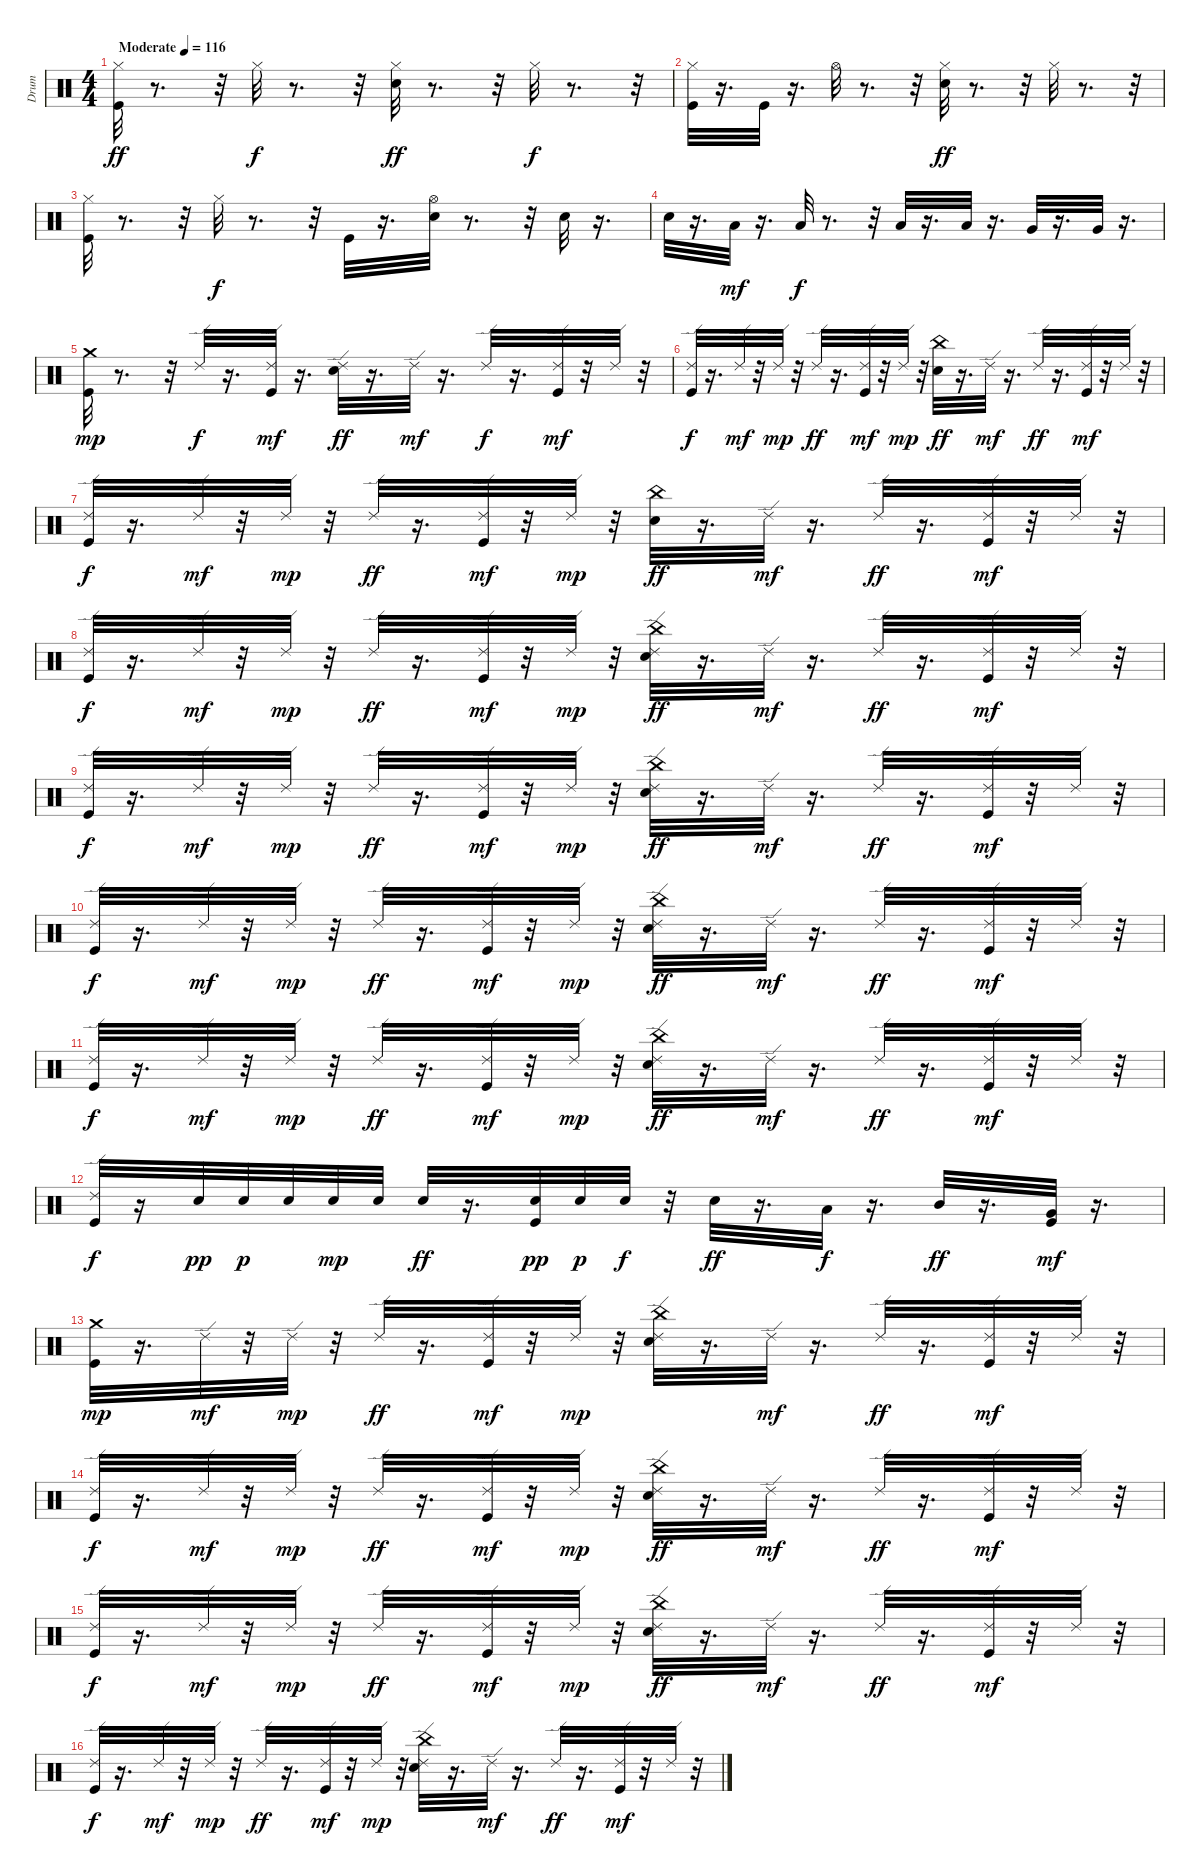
\track ("Drum    " "Drum    ") {instrument percussion}
\staff {score}
\articulation defaults
\ts (4 4)
\tempo (116 "Moderate")
\clef neutral
\ks c
("Kick (hit)" "Hi-Hat (closed)").32{dy ff} r.8{d} r.32 "Hi-Hat (closed)".32{dy f} r.8{d} r.32 ("Electric Snare (hit)" "Hi-Hat (closed)").32{dy ff} r.8{d} r.32 "Hi-Hat (closed)".32{dy f} r.8{d} r.32 |
("Kick (hit)" "Hi-Hat (closed)").32 r.16{d} "Kick (hit)".32 r.16{d} "Hi-Hat (open)".32 r.8{d} r.32 ("Hi-Hat (closed)" "Electric Snare (hit)").32{dy ff} r.8{d} r.32 "Hi-Hat (closed)".32 r.8{d} r.32 |
("Hi-Hat (closed)" "Kick (hit)").32 r.8{d} r.32 "Hi-Hat (closed)".32{dy f} r.8{d} r.32 "Kick (hit)".32 r.16{d} ("Hi-Hat (open)" "Electric Snare (hit)").32 r.8{d} r.32 "Electric Snare (hit)".32 r.16{d} |
"Electric Snare (hit)".32 r.16{d} "Low Tom (hit)".32{dy mf} r.16{d} "Low Tom (hit)".32{dy f} r.8{d} r.32 "Low Tom (hit)".32 r.16{d} "Low Tom (hit)".32 r.16{d} "Very Low Tom (hit)".32 r.16{d} "Very Low Tom (hit)".32 r.16{d} |
("Kick (hit)" "Crash medium (hit)").32{dy mp} r.8{d} r.32 "Ride (edge) 2".32{dy f} r.16{d} ("Ride (edge) 2" "Kick (hit)").32{dy mf} r.16{d} ("Electric Snare (hit)" "Ride (edge) 2").32{dy ff} r.16{d} "Ride (edge) 2".32{dy mf} r.16{d} "Ride (edge) 2".32{dy f} r.16{d} ("Ride (edge) 2" "Kick (hit)").32{dy mf} r.32 "Ride (edge) 2".32 r.32 |
("Ride (edge) 2" "Kick (hit)").32{dy f} r.16{d} "Ride (edge) 2".32{dy mf} r.32 "Ride (edge) 2".32{dy mp} r.32 "Ride (edge) 2".32{dy ff} r.16{d} ("Kick (hit)" "Ride (edge) 2").32{dy mf} r.32 "Ride (edge) 2".32{dy mp} r.32 ("China (hit)" "Electric Snare (hit)").32{dy ff} r.16{d} "Ride (edge) 2".32{dy mf} r.16{d} "Ride (edge) 2".32{dy ff} r.16{d} ("Kick (hit)" "Ride (edge) 2").32{dy mf} r.32 "Ride (edge) 2".32 r.32 |
("Ride (edge) 2" "Kick (hit)").32{dy f} r.16{d} "Ride (edge) 2".32{dy mf} r.32 "Ride (edge) 2".32{dy mp} r.32 "Ride (edge) 2".32{dy ff} r.16{d} ("Kick (hit)" "Ride (edge) 2").32{dy mf} r.32 "Ride (edge) 2".32{dy mp} r.32 ("China (hit)" "Electric Snare (hit)").32{dy ff} r.16{d} "Ride (edge) 2".32{dy mf} r.16{d} "Ride (edge) 2".32{dy ff} r.16{d} ("Kick (hit)" "Ride (edge) 2").32{dy mf} r.32 "Ride (edge) 2".32 r.32 |
("Ride (edge) 2" "Kick (hit)").32{dy f} r.16{d} "Ride (edge) 2".32{dy mf} r.32 "Ride (edge) 2".32{dy mp} r.32 "Ride (edge) 2".32{dy ff} r.16{d} ("Ride (edge) 2" "Kick (hit)").32{dy mf} r.32 "Ride (edge) 2".32{dy mp} r.32 ("China (hit)" "Ride (edge) 2" "Electric Snare (hit)").32{dy ff} r.16{d} "Ride (edge) 2".32{dy mf} r.16{d} "Ride (edge) 2".32{dy ff} r.16{d} ("Ride (edge) 2" "Kick (hit)").32{dy mf} r.32 "Ride (edge) 2".32 r.32 |
("Kick (hit)" "Ride (edge) 2").32{dy f} r.16{d} "Ride (edge) 2".32{dy mf} r.32 "Ride (edge) 2".32{dy mp} r.32 "Ride (edge) 2".32{dy ff} r.16{d} ("Ride (edge) 2" "Kick (hit)").32{dy mf} r.32 "Ride (edge) 2".32{dy mp} r.32 ("Electric Snare (hit)" "China (hit)" "Ride (edge) 2").32{dy ff} r.16{d} "Ride (edge) 2".32{dy mf} r.16{d} "Ride (edge) 2".32{dy ff} r.16{d} ("Kick (hit)" "Ride (edge) 2").32{dy mf} r.32 "Ride (edge) 2".32 r.32 |
("Kick (hit)" "Ride (edge) 2").32{dy f} r.16{d} "Ride (edge) 2".32{dy mf} r.32 "Ride (edge) 2".32{dy mp} r.32 "Ride (edge) 2".32{dy ff} r.16{d} ("Kick (hit)" "Ride (edge) 2").32{dy mf} r.32 "Ride (edge) 2".32{dy mp} r.32 ("Ride (edge) 2" "China (hit)" "Electric Snare (hit)").32{dy ff} r.16{d} "Ride (edge) 2".32{dy mf} r.16{d} "Ride (edge) 2".32{dy ff} r.16{d} ("Ride (edge) 2" "Kick (hit)").32{dy mf} r.32 "Ride (edge) 2".32 r.32 |
("Ride (edge) 2" "Kick (hit)").32{dy f} r.16{d} "Ride (edge) 2".32{dy mf} r.32 "Ride (edge) 2".32{dy mp} r.32 "Ride (edge) 2".32{dy ff} r.16{d} ("Ride (edge) 2" "Kick (hit)").32{dy mf} r.32 "Ride (edge) 2".32{dy mp} r.32 ("China (hit)" "Electric Snare (hit)" "Ride (edge) 2").32{dy ff} r.16{d} "Ride (edge) 2".32{dy mf} r.16{d} "Ride (edge) 2".32{dy ff} r.16{d} ("Ride (edge) 2" "Kick (hit)").32{dy mf} r.32 "Ride (edge) 2".32 r.32 |
("Ride (edge) 2" "Kick (hit)").32{dy f} r.16 "Electric Snare (hit)".32{dy pp} "Electric Snare (hit)".32{dy p} "Electric Snare (hit)".32 "Electric Snare (hit)".32{dy mp} "Electric Snare (hit)".32 "Electric Snare (hit)".32{dy ff} r.16{d} ("Electric Snare (hit)" "Kick (hit)").32{dy pp} "Electric Snare (hit)".32{dy p} "Electric Snare (hit)".32{dy f} r.32 "Electric Snare (hit)".32{dy ff} r.16{d} "Low Tom (hit)".32{dy f} r.16{d} "Mid Tom (hit)".32{dy ff} r.16{d} ("Very Low Tom (hit)" "Kick (hit)").32{dy mf} r.16{d} |
("Kick (hit)" "Crash medium (hit)").32{dy mp} r.16{d} "Ride (edge) 2".32{dy mf} r.32 "Ride (edge) 2".32{dy mp} r.32 "Ride (edge) 2".32{dy ff} r.16{d} ("Kick (hit)" "Ride (edge) 2").32{dy mf} r.32 "Ride (edge) 2".32{dy mp} r.32 ("Ride (edge) 2" "Electric Snare (hit)" "China (hit)").32 r.16{d} "Ride (edge) 2".32{dy mf} r.16{d} "Ride (edge) 2".32{dy ff} r.16{d} ("Kick (hit)" "Ride (edge) 2").32{dy mf} r.32 "Ride (edge) 2".32 r.32 |
("Ride (edge) 2" "Kick (hit)").32{dy f} r.16{d} "Ride (edge) 2".32{dy mf} r.32 "Ride (edge) 2".32{dy mp} r.32 "Ride (edge) 2".32{dy ff} r.16{d} ("Ride (edge) 2" "Kick (hit)").32{dy mf} r.32 "Ride (edge) 2".32{dy mp} r.32 ("China (hit)" "Electric Snare (hit)" "Ride (edge) 2").32{dy ff} r.16{d} "Ride (edge) 2".32{dy mf} r.16{d} "Ride (edge) 2".32{dy ff} r.16{d} ("Kick (hit)" "Ride (edge) 2").32{dy mf} r.32 "Ride (edge) 2".32 r.32 |
("Ride (edge) 2" "Kick (hit)").32{dy f} r.16{d} "Ride (edge) 2".32{dy mf} r.32 "Ride (edge) 2".32{dy mp} r.32 "Ride (edge) 2".32{dy ff} r.16{d} ("Ride (edge) 2" "Kick (hit)").32{dy mf} r.32 "Ride (edge) 2".32{dy mp} r.32 ("Electric Snare (hit)" "China (hit)" "Ride (edge) 2").32{dy ff} r.16{d} "Ride (edge) 2".32{dy mf} r.16{d} "Ride (edge) 2".32{dy ff} r.16{d} ("Kick (hit)" "Ride (edge) 2").32{dy mf} r.32 "Ride (edge) 2".32 r.32 |
("Kick (hit)" "Ride (edge) 2").32{dy f} r.16{d} "Ride (edge) 2".32{dy mf} r.32 "Ride (edge) 2".32{dy mp} r.32 "Ride (edge) 2".32{dy ff} r.16{d} ("Kick (hit)" "Ride (edge) 2").32{dy mf} r.32 "Ride (edge) 2".32{dy mp} r.32 ("Electric Snare (hit)" "Ride (edge) 2" "China (hit)").32 r.16{d} "Ride (edge) 2".32{dy mf} r.16{d} "Ride (edge) 2".32{dy ff} r.16{d} ("Kick (hit)" "Ride (edge) 2").32{dy mf} r.32 "Ride (edge) 2".32 r.32
